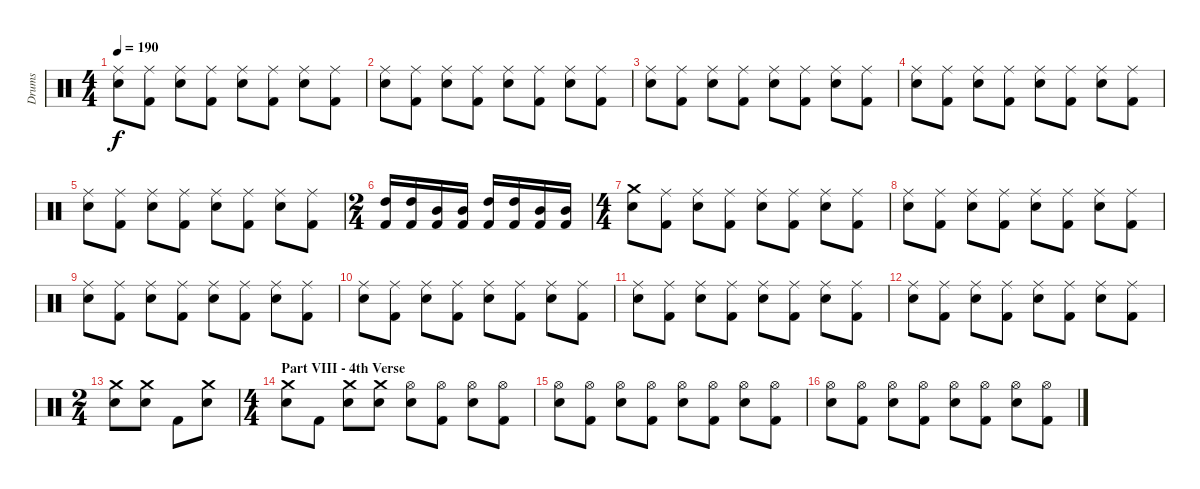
\track ("Drums" "Drums") {instrument percussion}
\staff {score}
\articulation defaults
\ts (4 4)
\tempo 190
\clef neutral
\ks c
("Electric Snare (hit)" "Ride (middle)").8{dy f} ("Kick (hit) 2" "Ride (middle)").8 ("Electric Snare (hit)" "Ride (middle)").8 ("Kick (hit) 2" "Ride (middle)").8 ("Electric Snare (hit)" "Ride (middle)").8 ("Kick (hit) 2" "Ride (middle)").8 ("Electric Snare (hit)" "Ride (middle)").8 ("Kick (hit) 2" "Ride (middle)").8 |
("Electric Snare (hit)" "Ride (middle)").8 ("Kick (hit) 2" "Ride (middle)").8 ("Electric Snare (hit)" "Ride (middle)").8 ("Kick (hit) 2" "Ride (middle)").8 ("Electric Snare (hit)" "Ride (middle)").8 ("Kick (hit) 2" "Ride (middle)").8 ("Electric Snare (hit)" "Ride (middle)").8 ("Kick (hit) 2" "Ride (middle)").8 |
("Electric Snare (hit)" "Ride (middle)").8 ("Kick (hit) 2" "Ride (middle)").8 ("Electric Snare (hit)" "Ride (middle)").8 ("Kick (hit) 2" "Ride (middle)").8 ("Electric Snare (hit)" "Ride (middle)").8 ("Kick (hit) 2" "Ride (middle)").8 ("Electric Snare (hit)" "Ride (middle)").8 ("Kick (hit) 2" "Ride (middle)").8 |
("Electric Snare (hit)" "Ride (middle)").8 ("Kick (hit) 2" "Ride (middle)").8 ("Electric Snare (hit)" "Ride (middle)").8 ("Kick (hit) 2" "Ride (middle)").8 ("Electric Snare (hit)" "Ride (middle)").8 ("Kick (hit) 2" "Ride (middle)").8 ("Electric Snare (hit)" "Ride (middle)").8 ("Kick (hit) 2" "Ride (middle)").8 |
("Electric Snare (hit)" "Ride (middle)").8 ("Kick (hit) 2" "Ride (middle)").8 ("Electric Snare (hit)" "Ride (middle)").8 ("Kick (hit) 2" "Ride (middle)").8 ("Electric Snare (hit)" "Ride (middle)").8 ("Kick (hit) 2" "Ride (middle)").8 ("Electric Snare (hit)" "Ride (middle)").8 ("Kick (hit) 2" "Ride (middle)").8 |
\ts (2 4)
("Kick (hit) 2" "High Tom (hit)").16 ("Kick (hit) 2" "High Tom (hit)").16 ("Kick (hit) 2" "Mid Tom (hit)").16 ("Kick (hit) 2" "Mid Tom (hit)").16 ("Kick (hit) 2" "High Tom (hit)").16 ("Kick (hit) 2" "High Tom (hit)").16 ("Kick (hit) 2" "Mid Tom (hit)").16 ("Kick (hit) 2" "Mid Tom (hit)").16 |
\ts (4 4)
("Electric Snare (hit)" "Crash medium (hit)").8 ("Kick (hit) 2" "Ride (middle)").8 ("Electric Snare (hit)" "Ride (middle)").8 ("Kick (hit) 2" "Ride (middle)").8 ("Electric Snare (hit)" "Ride (middle)").8 ("Kick (hit) 2" "Ride (middle)").8 ("Electric Snare (hit)" "Ride (middle)").8 ("Kick (hit) 2" "Ride (middle)").8 |
("Electric Snare (hit)" "Ride (middle)").8 ("Kick (hit) 2" "Ride (middle)").8 ("Electric Snare (hit)" "Ride (middle)").8 ("Kick (hit) 2" "Ride (middle)").8 ("Electric Snare (hit)" "Ride (middle)").8 ("Kick (hit) 2" "Ride (middle)").8 ("Electric Snare (hit)" "Ride (middle)").8 ("Kick (hit) 2" "Ride (middle)").8 |
("Electric Snare (hit)" "Ride (middle)").8 ("Kick (hit) 2" "Ride (middle)").8 ("Electric Snare (hit)" "Ride (middle)").8 ("Kick (hit) 2" "Ride (middle)").8 ("Electric Snare (hit)" "Ride (middle)").8 ("Kick (hit) 2" "Ride (middle)").8 ("Electric Snare (hit)" "Ride (middle)").8 ("Kick (hit) 2" "Ride (middle)").8 |
("Electric Snare (hit)" "Ride (middle)").8 ("Kick (hit) 2" "Ride (middle)").8 ("Electric Snare (hit)" "Ride (middle)").8 ("Kick (hit) 2" "Ride (middle)").8 ("Electric Snare (hit)" "Ride (middle)").8 ("Kick (hit) 2" "Ride (middle)").8 ("Electric Snare (hit)" "Ride (middle)").8 ("Kick (hit) 2" "Ride (middle)").8 |
("Electric Snare (hit)" "Ride (middle)").8 ("Kick (hit) 2" "Ride (middle)").8 ("Electric Snare (hit)" "Ride (middle)").8 ("Kick (hit) 2" "Ride (middle)").8 ("Electric Snare (hit)" "Ride (middle)").8 ("Kick (hit) 2" "Ride (middle)").8 ("Electric Snare (hit)" "Ride (middle)").8 ("Kick (hit) 2" "Ride (middle)").8 |
("Electric Snare (hit)" "Ride (middle)").8 ("Kick (hit) 2" "Ride (middle)").8 ("Electric Snare (hit)" "Ride (middle)").8 ("Kick (hit) 2" "Ride (middle)").8 ("Electric Snare (hit)" "Ride (middle)").8 ("Kick (hit) 2" "Ride (middle)").8 ("Electric Snare (hit)" "Ride (middle)").8 ("Kick (hit) 2" "Ride (middle)").8 |
\ts (2 4)
("Electric Snare (hit)" "Crash medium (hit)").8 ("Electric Snare (hit)" "Crash medium (hit)").8 "Kick (hit) 2".8 ("Electric Snare (hit)" "Crash medium (hit)").8 |
\ts (4 4)
\section ("" "Part VIII - 4th Verse")
("Electric Snare (hit)" "Crash medium (hit)").8 "Kick (hit) 2".8 ("Electric Snare (hit)" "Crash medium (hit)").8 ("Electric Snare (hit)" "Crash medium (hit)").8 ("Electric Snare (hit)" "Hi-Hat (open)").8 ("Kick (hit) 2" "Hi-Hat (open)").8 ("Electric Snare (hit)" "Hi-Hat (open)").8 ("Kick (hit) 2" "Hi-Hat (open)").8 |
("Electric Snare (hit)" "Hi-Hat (open)").8 ("Kick (hit) 2" "Hi-Hat (open)").8 ("Electric Snare (hit)" "Hi-Hat (open)").8 ("Kick (hit) 2" "Hi-Hat (open)").8 ("Electric Snare (hit)" "Hi-Hat (open)").8 ("Kick (hit) 2" "Hi-Hat (open)").8 ("Electric Snare (hit)" "Hi-Hat (open)").8 ("Kick (hit) 2" "Hi-Hat (open)").8 |
("Electric Snare (hit)" "Hi-Hat (open)").8 ("Kick (hit) 2" "Hi-Hat (open)").8 ("Electric Snare (hit)" "Hi-Hat (open)").8 ("Kick (hit) 2" "Hi-Hat (open)").8 ("Electric Snare (hit)" "Hi-Hat (open)").8 ("Kick (hit) 2" "Hi-Hat (open)").8 ("Electric Snare (hit)" "Hi-Hat (open)").8 ("Kick (hit) 2" "Hi-Hat (open)").8
